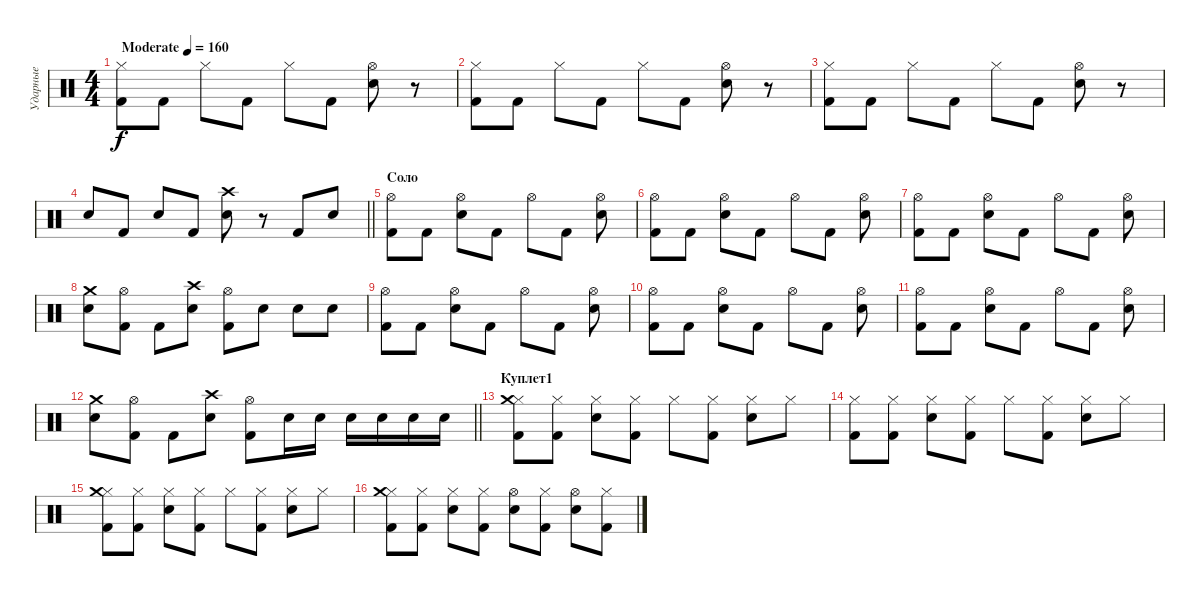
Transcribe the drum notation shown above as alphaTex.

\track ("Ударные" "Ударные") {instrument percussion}
\staff {score}
\articulation defaults
\ts (4 4)
\tempo (160 "Moderate")
\clef neutral
\ks c
("Kick (hit) 2" "Hi-Hat (closed)").8{dy f} "Kick (hit) 2".8 "Hi-Hat (closed)".8 "Kick (hit) 2".8 "Hi-Hat (closed)".8 "Kick (hit) 2".8 ("Snare (hit) 2" "Hi-Hat (open)").8 r.8 |
("Kick (hit) 2" "Hi-Hat (closed)").8 "Kick (hit) 2".8 "Hi-Hat (closed)".8 "Kick (hit) 2".8 "Hi-Hat (closed)".8 "Kick (hit) 2".8 ("Snare (hit) 2" "Hi-Hat (open)").8 r.8 |
("Kick (hit) 2" "Hi-Hat (closed)").8 "Kick (hit) 2".8 "Hi-Hat (closed)".8 "Kick (hit) 2".8 "Hi-Hat (closed)".8 "Kick (hit) 2".8 ("Snare (hit) 2" "Hi-Hat (open)").8 r.8 |
\barLineRight lightlight "Snare (hit) 2".8 "Kick (hit) 2".8 "Snare (hit) 2".8 "Kick (hit) 2".8
("Snare (hit) 2" "Crash high (hit)").8 r.8 "Kick (hit) 2".8 "Snare (hit) 2".8 |
\section ("" "Соло")
("Kick (hit) 2" "Hi-Hat (open)").8 "Kick (hit) 2".8 ("Snare (hit) 2" "Hi-Hat (open)").8 "Kick (hit) 2".8 "Hi-Hat (open)".8 "Kick (hit) 2".8 ("Snare (hit) 2" "Hi-Hat (open)").8 |
("Kick (hit) 2" "Hi-Hat (open)").8 "Kick (hit) 2".8 ("Snare (hit) 2" "Hi-Hat (open)").8 "Kick (hit) 2".8 "Hi-Hat (open)".8 "Kick (hit) 2".8 ("Snare (hit) 2" "Hi-Hat (open)").8 |
("Kick (hit) 2" "Hi-Hat (open)").8 "Kick (hit) 2".8 ("Snare (hit) 2" "Hi-Hat (open)").8 "Kick (hit) 2".8 "Hi-Hat (open)".8 "Kick (hit) 2".8 ("Snare (hit) 2" "Hi-Hat (open)").8 |
("Snare (hit) 2" "Crash medium (hit)").8 ("Kick (hit) 2" "Hi-Hat (open)").8 "Kick (hit) 2".8 ("Snare (hit) 2" "Crash high (hit)").8 ("Kick (hit) 2" "Hi-Hat (open)").8 "Snare (hit) 2".8 "Snare (hit) 2".8 "Snare (hit) 2".8 |
("Kick (hit) 2" "Hi-Hat (open)").8 "Kick (hit) 2".8 ("Snare (hit) 2" "Hi-Hat (open)").8 "Kick (hit) 2".8 "Hi-Hat (open)".8 "Kick (hit) 2".8 ("Snare (hit) 2" "Hi-Hat (open)").8 |
("Kick (hit) 2" "Hi-Hat (open)").8 "Kick (hit) 2".8 ("Snare (hit) 2" "Hi-Hat (open)").8 "Kick (hit) 2".8 "Hi-Hat (open)".8 "Kick (hit) 2".8 ("Snare (hit) 2" "Hi-Hat (open)").8 |
("Kick (hit) 2" "Hi-Hat (open)").8 "Kick (hit) 2".8 ("Snare (hit) 2" "Hi-Hat (open)").8 "Kick (hit) 2".8 "Hi-Hat (open)".8 "Kick (hit) 2".8 ("Snare (hit) 2" "Hi-Hat (open)").8 |
\barLineRight lightlight
("Snare (hit) 2" "Crash medium (hit)").8 ("Kick (hit) 2" "Hi-Hat (open)").8 "Kick (hit) 2".8 ("Snare (hit) 2" "Crash high (hit)").8 ("Kick (hit) 2" "Hi-Hat (open)").8 "Snare (hit) 2".16 "Snare (hit) 2".16 "Snare (hit) 2".16 "Snare (hit) 2".16 "Snare (hit) 2".16 "Snare (hit) 2".16 |
\section ("" "Куплет1")
("Kick (hit) 2" "Hi-Hat (closed)" "Crash medium (hit)").8 ("Kick (hit) 2" "Hi-Hat (closed)").8 ("Snare (hit) 2" "Hi-Hat (closed)").8 ("Kick (hit) 2" "Hi-Hat (closed)").8 "Hi-Hat (closed)".8 ("Kick (hit) 2" "Hi-Hat (closed)").8 ("Snare (hit) 2" "Hi-Hat (closed)").8 "Hi-Hat (closed)".8 |
("Kick (hit) 2" "Hi-Hat (closed)").8 ("Kick (hit) 2" "Hi-Hat (closed)").8 ("Snare (hit) 2" "Hi-Hat (closed)").8 ("Kick (hit) 2" "Hi-Hat (closed)").8 "Hi-Hat (closed)".8 ("Kick (hit) 2" "Hi-Hat (closed)").8 ("Snare (hit) 2" "Hi-Hat (closed)").8 "Hi-Hat (closed)".8 |
("Kick (hit) 2" "Hi-Hat (closed)" "Crash medium (hit)").8 ("Kick (hit) 2" "Hi-Hat (closed)").8 ("Snare (hit) 2" "Hi-Hat (closed)").8 ("Kick (hit) 2" "Hi-Hat (closed)").8 "Hi-Hat (closed)".8 ("Kick (hit) 2" "Hi-Hat (closed)").8 ("Snare (hit) 2" "Hi-Hat (closed)").8 "Hi-Hat (closed)".8 |
("Kick (hit) 2" "Hi-Hat (closed)" "Crash medium (hit)").8 ("Kick (hit) 2" "Hi-Hat (closed)").8 ("Snare (hit) 2" "Hi-Hat (closed)").8 ("Kick (hit) 2" "Hi-Hat (closed)").8 ("Snare (hit) 2" "Hi-Hat (open)").8 ("Kick (hit) 2" "Hi-Hat (closed)").8 ("Snare (hit) 2" "Hi-Hat (open)").8 ("Kick (hit) 2" "Hi-Hat (closed)").8
